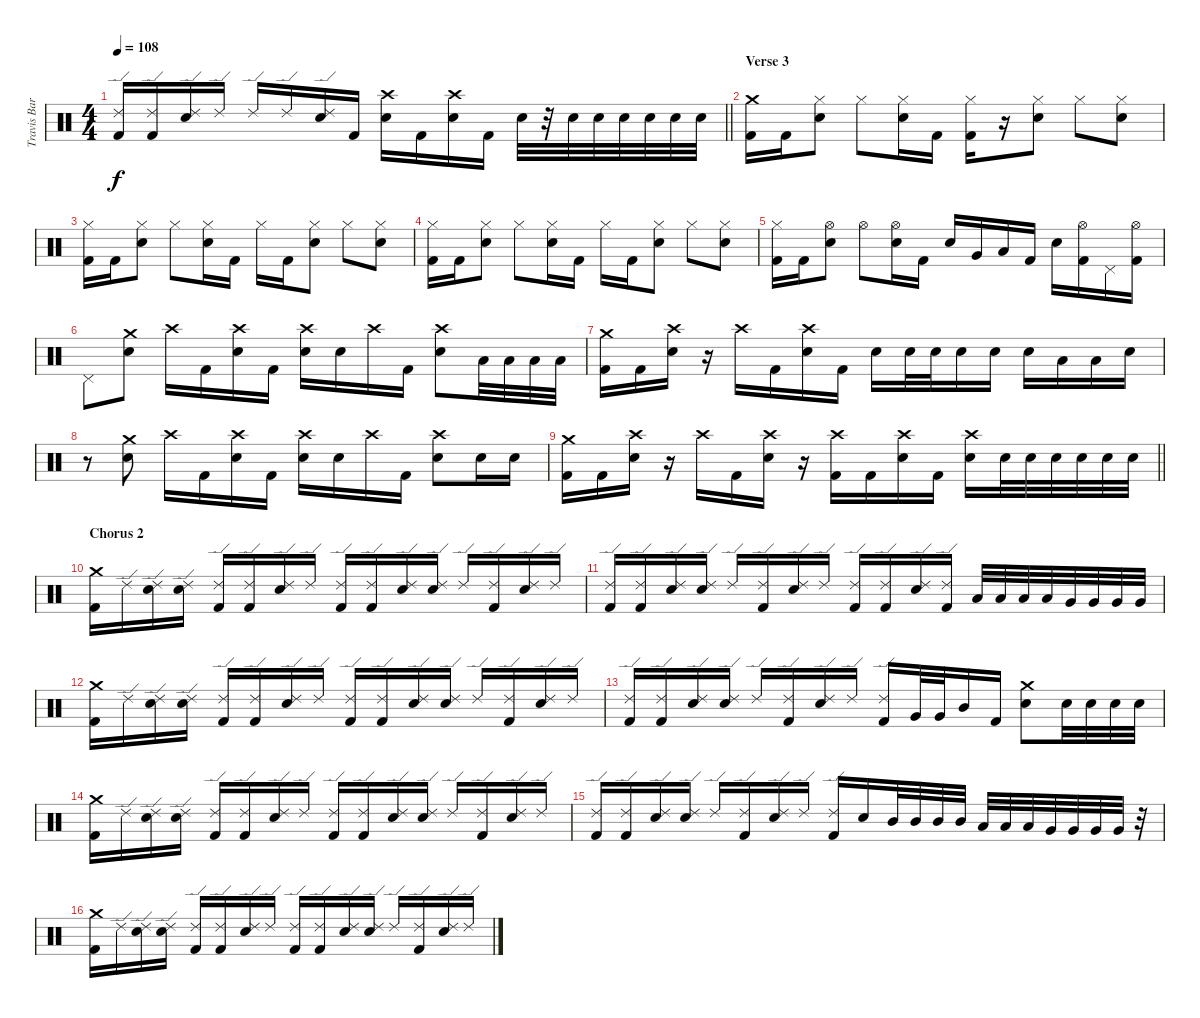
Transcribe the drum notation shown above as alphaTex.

\track ("Travis Barker" "Travis Bar") {instrument percussion}
\staff {score}
\articulation defaults
\ts (4 4)
\tempo 108
\clef neutral
\barLineRight lightlight
\ks c
("Ride (edge) 2" "Kick (hit) 2").16{dy f} ("Ride (edge) 2" "Kick (hit) 2").16 ("Ride (edge) 2" "Electric Snare (hit)").16 "Ride (edge) 2".16 "Ride (edge) 2".16 "Ride (edge) 2".16 ("Ride (edge) 2" "Electric Snare (hit)").16 "Kick (hit) 2".16 ("Crash high (hit)" "Electric Snare (hit)").16 "Kick (hit) 2".16 ("Crash high (hit)" "Electric Snare (hit)").16 "Kick (hit) 2".16 "Electric Snare (hit)".32 r.32 "Electric Snare (hit)".32 "Electric Snare (hit)".32 "Electric Snare (hit)".32 "Electric Snare (hit)".32 "Electric Snare (hit)".32 "Electric Snare (hit)".32 |
\section ("" "Verse 3")
("Crash medium (hit)" "Kick (hit) 2").16 "Kick (hit) 2".16 ("Hi-Hat (closed)" "Electric Snare (hit)").8 "Hi-Hat (closed)".8 ("Hi-Hat (closed)" "Electric Snare (hit)").16 "Kick (hit) 2".16 ("Hi-Hat (closed)" "Kick (hit) 2").16 r.16 ("Hi-Hat (closed)" "Electric Snare (hit)").8 "Hi-Hat (closed)".8 ("Hi-Hat (closed)" "Electric Snare (hit)").8 |
("Hi-Hat (closed)" "Kick (hit) 2").16 "Kick (hit) 2".16 ("Hi-Hat (closed)" "Electric Snare (hit)").8 "Hi-Hat (closed)".8 ("Hi-Hat (closed)" "Electric Snare (hit)").16 "Kick (hit) 2".16 "Hi-Hat (closed)".16 "Kick (hit) 2".16 ("Hi-Hat (closed)" "Electric Snare (hit)").8 "Hi-Hat (closed)".8 ("Hi-Hat (closed)" "Electric Snare (hit)").8 |
("Hi-Hat (closed)" "Kick (hit) 2").16 "Kick (hit) 2".16 ("Hi-Hat (closed)" "Electric Snare (hit)").8 "Hi-Hat (closed)".8 ("Hi-Hat (closed)" "Electric Snare (hit)").16 "Kick (hit) 2".16 "Hi-Hat (closed)".16 "Kick (hit) 2".16 ("Hi-Hat (closed)" "Electric Snare (hit)").8 "Hi-Hat (closed)".8 ("Hi-Hat (closed)" "Electric Snare (hit)").8 |
("Hi-Hat (closed)" "Kick (hit) 2").16 "Kick (hit) 2".16 ("Hi-Hat (open)" "Electric Snare (hit)").8 "Hi-Hat (open)".8 ("Hi-Hat (open)" "Electric Snare (hit)").16 "Kick (hit) 2".16 "Electric Snare (hit)".16 "Very Low Tom (hit)".16 "Low Tom (hit)".16 "Kick (hit) 2".16 "Electric Snare (hit)".16 ("Hi-Hat (open)" "Kick (hit) 2").16 "Pedal Hi-Hat (hit)".16 ("Hi-Hat (open)" "Kick (hit) 2").16 |
"Pedal Hi-Hat (hit)".8 ("Crash medium (hit)" "Electric Snare (hit)").8 "Crash high (hit)".16 "Kick (hit) 2".16 ("Crash high (hit)" "Electric Snare (hit)").16 "Kick (hit) 2".16 ("Crash high (hit)" "Electric Snare (hit)").16 "Electric Snare (hit)".16 "Crash high (hit)".16 "Kick (hit) 2".16 ("Crash high (hit)" "Electric Snare (hit)").8 "Low Tom (hit)".32 "Low Tom (hit)".32 "Low Tom (hit)".32 "Low Tom (hit)".32 |
("Crash medium (hit)" "Kick (hit) 2").16 "Kick (hit) 2".16 ("Crash high (hit)" "Electric Snare (hit)").16 r.16 "Crash high (hit)".16 "Kick (hit) 2".16 ("Crash high (hit)" "Electric Snare (hit)").16 "Kick (hit) 2".16 "Electric Snare (hit)".16 "Electric Snare (hit)".32 "Electric Snare (hit)".32 "Electric Snare (hit)".16 "Electric Snare (hit)".16 "Electric Snare (hit)".16 "Low Tom (hit)".16 "Low Tom (hit)".16 "Electric Snare (hit)".16 |
r.8 ("Crash medium (hit)" "Electric Snare (hit)").8 "Crash high (hit)".16 "Kick (hit) 2".16 ("Crash high (hit)" "Electric Snare (hit)").16 "Kick (hit) 2".16 ("Crash high (hit)" "Electric Snare (hit)").16 "Electric Snare (hit)".16 "Crash high (hit)".16 "Kick (hit) 2".16 ("Crash high (hit)" "Electric Snare (hit)").8 "Electric Snare (hit)".16 "Electric Snare (hit)".16 |
\barLineRight lightlight
("Crash medium (hit)" "Kick (hit) 2").16 "Kick (hit) 2".16 ("Crash high (hit)" "Electric Snare (hit)").16 r.16 "Crash high (hit)".16 "Kick (hit) 2".16 ("Crash high (hit)" "Electric Snare (hit)").16 r.16 ("Crash high (hit)" "Kick (hit) 2").16 "Kick (hit) 2".16 ("Crash high (hit)" "Electric Snare (hit)").16 "Kick (hit) 2".16 ("Crash high (hit)" "Electric Snare (hit)").16 "Electric Snare (hit)".32 "Electric Snare (hit)".32 "Electric Snare (hit)".32 "Electric Snare (hit)".32 "Electric Snare (hit)".32 "Electric Snare (hit)".32 |
\section ("" "Chorus 2")
("Crash medium (hit)" "Kick (hit) 2").16 "Ride (edge) 2".16 ("Ride (edge) 2" "Electric Snare (hit)").16 ("Ride (edge) 2" "Electric Snare (hit)").16 ("Ride (edge) 2" "Kick (hit) 2").16 ("Ride (edge) 2" "Kick (hit) 2").16 ("Ride (edge) 2" "Electric Snare (hit)").16 "Ride (edge) 2".16 ("Ride (edge) 2" "Kick (hit) 2").16 ("Ride (edge) 2" "Kick (hit) 2").16 ("Ride (edge) 2" "Electric Snare (hit)").16 ("Ride (edge) 2" "Electric Snare (hit)").16 "Ride (edge) 2".16 ("Ride (edge) 2" "Kick (hit) 2").16 ("Ride (edge) 2" "Electric Snare (hit)").16 "Ride (edge) 2".16 |
("Ride (edge) 2" "Kick (hit) 2").16 ("Ride (edge) 2" "Kick (hit) 2").16 ("Ride (edge) 2" "Electric Snare (hit)").16 ("Ride (edge) 2" "Electric Snare (hit)").16 "Ride (edge) 2".16 ("Ride (edge) 2" "Kick (hit) 2").16 ("Ride (edge) 2" "Electric Snare (hit)").16 "Ride (edge) 2".16 ("Ride (edge) 2" "Kick (hit) 2").16 ("Ride (edge) 2" "Kick (hit) 2").16 ("Ride (edge) 2" "Electric Snare (hit)").16 ("Ride (edge) 2" "Kick (hit) 2").16 "Low Tom (hit)".32 "Low Tom (hit)".32 "Low Tom (hit)".32 "Low Tom (hit)".32 "Very Low Tom (hit)".32 "Very Low Tom (hit)".32 "Very Low Tom (hit)".32 "Very Low Tom (hit)".32 |
("Crash medium (hit)" "Kick (hit) 2").16 "Ride (edge) 2".16 ("Ride (edge) 2" "Electric Snare (hit)").16 ("Ride (edge) 2" "Electric Snare (hit)").16 ("Ride (edge) 2" "Kick (hit) 2").16 ("Ride (edge) 2" "Kick (hit) 2").16 ("Ride (edge) 2" "Electric Snare (hit)").16 "Ride (edge) 2".16 ("Ride (edge) 2" "Kick (hit) 2").16 ("Ride (edge) 2" "Kick (hit) 2").16 ("Ride (edge) 2" "Electric Snare (hit)").16 ("Ride (edge) 2" "Electric Snare (hit)").16 "Ride (edge) 2".16 ("Ride (edge) 2" "Kick (hit) 2").16 ("Ride (edge) 2" "Electric Snare (hit)").16 "Ride (edge) 2".16 |
("Ride (edge) 2" "Kick (hit) 2").16 ("Ride (edge) 2" "Kick (hit) 2").16 ("Ride (edge) 2" "Electric Snare (hit)").16 ("Ride (edge) 2" "Electric Snare (hit)").16 "Ride (edge) 2".16 ("Ride (edge) 2" "Kick (hit) 2").16 ("Ride (edge) 2" "Electric Snare (hit)").16 "Ride (edge) 2".16 ("Ride (edge) 2" "Kick (hit) 2").16 "Very Low Tom (hit)".32 "Very Low Tom (hit)".32 "Mid Tom (hit)".16 "Kick (hit) 2".16 ("Crash medium (hit)" "Electric Snare (hit)").8 "Electric Snare (hit)".32 "Electric Snare (hit)".32 "Electric Snare (hit)".32 "Electric Snare (hit)".32 |
("Crash medium (hit)" "Kick (hit) 2").16 "Ride (edge) 2".16 ("Ride (edge) 2" "Electric Snare (hit)").16 ("Ride (edge) 2" "Electric Snare (hit)").16 ("Ride (edge) 2" "Kick (hit) 2").16 ("Ride (edge) 2" "Kick (hit) 2").16 ("Ride (edge) 2" "Electric Snare (hit)").16 "Ride (edge) 2".16 ("Ride (edge) 2" "Kick (hit) 2").16 ("Ride (edge) 2" "Kick (hit) 2").16 ("Ride (edge) 2" "Electric Snare (hit)").16 ("Ride (edge) 2" "Electric Snare (hit)").16 "Ride (edge) 2".16 ("Ride (edge) 2" "Kick (hit) 2").16 ("Ride (edge) 2" "Electric Snare (hit)").16 "Ride (edge) 2".16 |
("Ride (edge) 2" "Kick (hit) 2").16 ("Ride (edge) 2" "Kick (hit) 2").16 ("Ride (edge) 2" "Electric Snare (hit)").16 ("Ride (edge) 2" "Electric Snare (hit)").16 "Ride (edge) 2".16 ("Ride (edge) 2" "Kick (hit) 2").16 ("Ride (edge) 2" "Electric Snare (hit)").16 "Ride (edge) 2".16 ("Ride (edge) 2" "Kick (hit) 2").16 "Electric Snare (hit)".16 "Mid Tom (hit)".32 "Mid Tom (hit)".32 "Mid Tom (hit)".32 "Mid Tom (hit)".32 "Low Tom (hit)".32 "Low Tom (hit)".32 "Low Tom (hit)".32 "Very Low Tom (hit)".32 "Very Low Tom (hit)".32 "Very Low Tom (hit)".32 "Very Low Tom (hit)".32 r.32 |
("Crash medium (hit)" "Kick (hit) 2").16 "Ride (edge) 2".16 ("Ride (edge) 2" "Electric Snare (hit)").16 ("Ride (edge) 2" "Electric Snare (hit)").16 ("Ride (edge) 2" "Kick (hit) 2").16 ("Ride (edge) 2" "Kick (hit) 2").16 ("Ride (edge) 2" "Electric Snare (hit)").16 "Ride (edge) 2".16 ("Ride (edge) 2" "Kick (hit) 2").16 ("Ride (edge) 2" "Kick (hit) 2").16 ("Ride (edge) 2" "Electric Snare (hit)").16 ("Ride (edge) 2" "Electric Snare (hit)").16 "Ride (edge) 2".16 ("Ride (edge) 2" "Kick (hit) 2").16 ("Ride (edge) 2" "Electric Snare (hit)").16 "Ride (edge) 2".16
